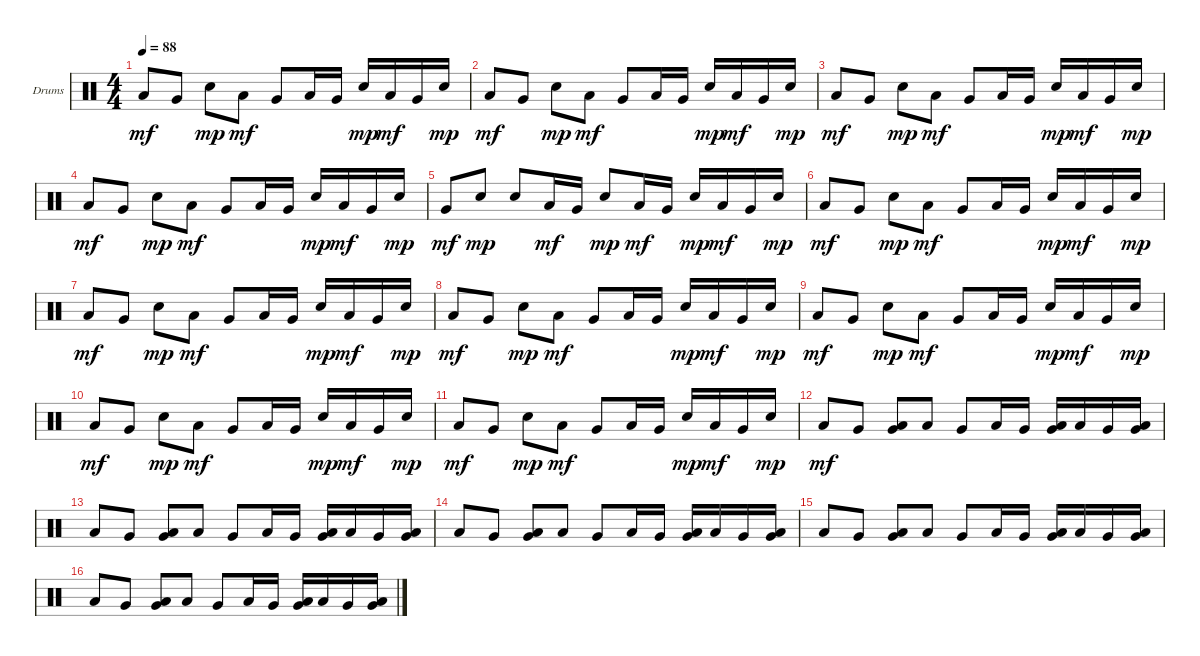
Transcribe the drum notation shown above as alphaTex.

\defaultSystemsLayout 4
\bracketExtendMode groupsimilarinstruments
\firstSystemTrackNameOrientation horizontal
\otherSystemsTrackNameOrientation horizontal
\track ("Helders" "Drums") {instrument percussion}
\staff {score}
\articulation defaults
\ts (4 4)
\tempo 88
\clef neutral
\ks c "Low Tom (hit)".8{dy mf} "Very Low Tom (hit)".8 "Snare (hit) 2".8{dy mp} "Low Tom (hit)".8{dy mf} "Very Low Tom (hit)".8 "Low Tom (hit)".16 "Very Low Tom (hit)".16 "Snare (hit) 2".16{dy mp} "Low Tom (hit)".16{dy mf} "Very Low Tom (hit)".16 "Snare (hit) 2".16{dy mp}
|
"Low Tom (hit)".8{dy mf} "Very Low Tom (hit)".8 "Snare (hit) 2".8{dy mp} "Low Tom (hit)".8{dy mf} "Very Low Tom (hit)".8 "Low Tom (hit)".16 "Very Low Tom (hit)".16 "Snare (hit) 2".16{dy mp} "Low Tom (hit)".16{dy mf} "Very Low Tom (hit)".16 "Snare (hit) 2".16{dy mp} |
"Low Tom (hit)".8{dy mf} "Very Low Tom (hit)".8 "Snare (hit) 2".8{dy mp} "Low Tom (hit)".8{dy mf} "Very Low Tom (hit)".8 "Low Tom (hit)".16 "Very Low Tom (hit)".16 "Snare (hit) 2".16{dy mp} "Low Tom (hit)".16{dy mf} "Very Low Tom (hit)".16 "Snare (hit) 2".16{dy mp} |
"Low Tom (hit)".8{dy mf} "Very Low Tom (hit)".8 "Snare (hit) 2".8{dy mp} "Low Tom (hit)".8{dy mf} "Very Low Tom (hit)".8 "Low Tom (hit)".16 "Very Low Tom (hit)".16 "Snare (hit) 2".16{dy mp} "Low Tom (hit)".16{dy mf} "Very Low Tom (hit)".16 "Snare (hit) 2".16{dy mp} |
"Very Low Tom (hit)".8{dy mf} "Snare (hit) 2".8{dy mp} "Snare (hit) 2".8 "Low Tom (hit)".16{dy mf} "Very Low Tom (hit)".16 "Snare (hit) 2".8{dy mp} "Low Tom (hit)".16{dy mf} "Very Low Tom (hit)".16 "Snare (hit) 2".16{dy mp} "Low Tom (hit)".16{dy mf} "Very Low Tom (hit)".16 "Snare (hit) 2".16{dy mp} |
"Low Tom (hit)".8{dy mf} "Very Low Tom (hit)".8 "Snare (hit) 2".8{dy mp} "Low Tom (hit)".8{dy mf} "Very Low Tom (hit)".8 "Low Tom (hit)".16 "Very Low Tom (hit)".16 "Snare (hit) 2".16{dy mp} "Low Tom (hit)".16{dy mf} "Very Low Tom (hit)".16 "Snare (hit) 2".16{dy mp} |
"Low Tom (hit)".8{dy mf} "Very Low Tom (hit)".8 "Snare (hit) 2".8{dy mp} "Low Tom (hit)".8{dy mf} "Very Low Tom (hit)".8 "Low Tom (hit)".16 "Very Low Tom (hit)".16 "Snare (hit) 2".16{dy mp} "Low Tom (hit)".16{dy mf} "Very Low Tom (hit)".16 "Snare (hit) 2".16{dy mp} |
"Low Tom (hit)".8{dy mf} "Very Low Tom (hit)".8 "Snare (hit) 2".8{dy mp} "Low Tom (hit)".8{dy mf} "Very Low Tom (hit)".8 "Low Tom (hit)".16 "Very Low Tom (hit)".16 "Snare (hit) 2".16{dy mp} "Low Tom (hit)".16{dy mf} "Very Low Tom (hit)".16 "Snare (hit) 2".16{dy mp} |
"Low Tom (hit)".8{dy mf} "Very Low Tom (hit)".8 "Snare (hit) 2".8{dy mp} "Low Tom (hit)".8{dy mf} "Very Low Tom (hit)".8 "Low Tom (hit)".16 "Very Low Tom (hit)".16 "Snare (hit) 2".16{dy mp} "Low Tom (hit)".16{dy mf} "Very Low Tom (hit)".16 "Snare (hit) 2".16{dy mp} |
"Low Tom (hit)".8{dy mf} "Very Low Tom (hit)".8 "Snare (hit) 2".8{dy mp} "Low Tom (hit)".8{dy mf} "Very Low Tom (hit)".8 "Low Tom (hit)".16 "Very Low Tom (hit)".16 "Snare (hit) 2".16{dy mp} "Low Tom (hit)".16{dy mf} "Very Low Tom (hit)".16 "Snare (hit) 2".16{dy mp} |
"Low Tom (hit)".8{dy mf} "Very Low Tom (hit)".8 "Snare (hit) 2".8{dy mp} "Low Tom (hit)".8{dy mf} "Very Low Tom (hit)".8 "Low Tom (hit)".16 "Very Low Tom (hit)".16 "Snare (hit) 2".16{dy mp} "Low Tom (hit)".16{dy mf} "Very Low Tom (hit)".16 "Snare (hit) 2".16{dy mp} |
"Low Tom (hit)".8{dy mf} "Very Low Tom (hit)".8 ("Low Tom (hit)" "Very Low Tom (hit)").8 "Low Tom (hit)".8 "Very Low Tom (hit)".8 "Low Tom (hit)".16 "Very Low Tom (hit)".16 ("Low Tom (hit)" "Very Low Tom (hit)").16 "Low Tom (hit)".16 "Very Low Tom (hit)".16 ("Low Tom (hit)" "Very Low Tom (hit)").16 |
"Low Tom (hit)".8 "Very Low Tom (hit)".8 ("Low Tom (hit)" "Very Low Tom (hit)").8 "Low Tom (hit)".8 "Very Low Tom (hit)".8 "Low Tom (hit)".16 "Very Low Tom (hit)".16 ("Very Low Tom (hit)" "Low Tom (hit)").16 "Low Tom (hit)".16 "Very Low Tom (hit)".16 ("Low Tom (hit)" "Very Low Tom (hit)").16 |
"Low Tom (hit)".8 "Very Low Tom (hit)".8 ("Low Tom (hit)" "Very Low Tom (hit)").8 "Low Tom (hit)".8 "Very Low Tom (hit)".8 "Low Tom (hit)".16 "Very Low Tom (hit)".16 ("Low Tom (hit)" "Very Low Tom (hit)").16 "Low Tom (hit)".16 "Very Low Tom (hit)".16 ("Low Tom (hit)" "Very Low Tom (hit)").16 |
"Low Tom (hit)".8 "Very Low Tom (hit)".8 ("Low Tom (hit)" "Very Low Tom (hit)").8 "Low Tom (hit)".8 "Very Low Tom (hit)".8 "Low Tom (hit)".16 "Very Low Tom (hit)".16 ("Very Low Tom (hit)" "Low Tom (hit)").16 "Low Tom (hit)".16 "Very Low Tom (hit)".16 ("Low Tom (hit)" "Very Low Tom (hit)").16 |
"Low Tom (hit)".8 "Very Low Tom (hit)".8 ("Low Tom (hit)" "Very Low Tom (hit)").8 "Low Tom (hit)".8 "Very Low Tom (hit)".8 "Low Tom (hit)".16 "Very Low Tom (hit)".16 ("Low Tom (hit)" "Very Low Tom (hit)").16 "Low Tom (hit)".16 "Very Low Tom (hit)".16 ("Low Tom (hit)" "Very Low Tom (hit)").16
